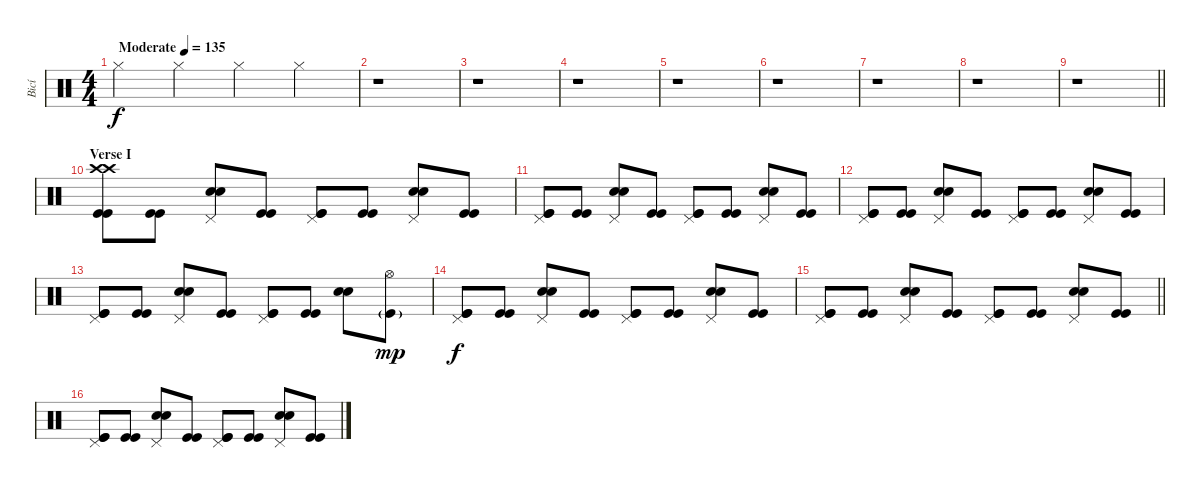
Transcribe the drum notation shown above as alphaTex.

\track ("Bicí" "Bicí") {instrument percussion}
\staff {score}
\articulation defaults
\ts (4 4)
\tempo (135 "Moderate")
\clef neutral
\ks c "Hi-Hat (closed)".4{dy f} "Hi-Hat (closed)".4 "Hi-Hat (closed)".4 "Hi-Hat (closed)".4
|
r.1 |
r.1 |
r.1 |
r.1 |
r.1 |
r.1 |
r.1 |
\barLineRight lightlight
r.1 |
\section ("" "Verse I")
("Crash high (hit)" "Crash high (hit)" "Kick (hit)" "Kick (hit)").8 ("Kick (hit)" "Kick (hit)").8 ("Pedal Hi-Hat (hit)" "Electric Snare (hit)" "Electric Snare (hit)").8 ("Kick (hit)" "Kick (hit)").8 ("Pedal Hi-Hat (hit)" "Kick (hit)" "Kick (hit)").8 ("Kick (hit)" "Kick (hit)").8 ("Pedal Hi-Hat (hit)" "Electric Snare (hit)" "Electric Snare (hit)").8 ("Kick (hit)" "Kick (hit)").8 |
("Pedal Hi-Hat (hit)" "Kick (hit)" "Kick (hit)").8 ("Kick (hit)" "Kick (hit)").8 ("Pedal Hi-Hat (hit)" "Electric Snare (hit)" "Electric Snare (hit)").8 ("Kick (hit)" "Kick (hit)").8 ("Pedal Hi-Hat (hit)" "Kick (hit)" "Kick (hit)").8 ("Kick (hit)" "Kick (hit)").8 ("Pedal Hi-Hat (hit)" "Electric Snare (hit)" "Electric Snare (hit)").8 ("Kick (hit)" "Kick (hit)").8 |
("Pedal Hi-Hat (hit)" "Kick (hit)" "Kick (hit)").8 ("Kick (hit)" "Kick (hit)").8 ("Pedal Hi-Hat (hit)" "Electric Snare (hit)" "Electric Snare (hit)").8 ("Kick (hit)" "Kick (hit)").8 ("Pedal Hi-Hat (hit)" "Kick (hit)" "Kick (hit)").8 ("Kick (hit)" "Kick (hit)").8 ("Pedal Hi-Hat (hit)" "Electric Snare (hit)" "Electric Snare (hit)").8 ("Kick (hit)" "Kick (hit)").8 |
("Pedal Hi-Hat (hit)" "Kick (hit)" "Kick (hit)").8 ("Kick (hit)" "Kick (hit)").8 ("Pedal Hi-Hat (hit)" "Electric Snare (hit)" "Electric Snare (hit)").8 ("Kick (hit)" "Kick (hit)").8 ("Pedal Hi-Hat (hit)" "Kick (hit)" "Kick (hit)").8 ("Kick (hit)" "Kick (hit)").8 ("Electric Snare (hit)" "Electric Snare (hit)").8 ("Hi-Hat (open)" "Kick (hit)"{g}).8{dy mp} |
("Pedal Hi-Hat (hit)" "Kick (hit)" "Kick (hit)").8{dy f} ("Kick (hit)" "Kick (hit)").8 ("Pedal Hi-Hat (hit)" "Electric Snare (hit)" "Electric Snare (hit)").8 ("Kick (hit)" "Kick (hit)").8 ("Pedal Hi-Hat (hit)" "Kick (hit)" "Kick (hit)").8 ("Kick (hit)" "Kick (hit)").8 ("Pedal Hi-Hat (hit)" "Electric Snare (hit)" "Electric Snare (hit)").8 ("Kick (hit)" "Kick (hit)").8 |
\barLineRight lightlight
("Pedal Hi-Hat (hit)" "Kick (hit)" "Kick (hit)").8 ("Kick (hit)" "Kick (hit)").8 ("Pedal Hi-Hat (hit)" "Electric Snare (hit)" "Electric Snare (hit)").8 ("Kick (hit)" "Kick (hit)").8 ("Pedal Hi-Hat (hit)" "Kick (hit)" "Kick (hit)").8 ("Kick (hit)" "Kick (hit)").8 ("Pedal Hi-Hat (hit)" "Electric Snare (hit)" "Electric Snare (hit)").8 ("Kick (hit)" "Kick (hit)").8 |
("Pedal Hi-Hat (hit)" "Kick (hit)" "Kick (hit)").8 ("Kick (hit)" "Kick (hit)").8 ("Pedal Hi-Hat (hit)" "Electric Snare (hit)" "Electric Snare (hit)").8 ("Kick (hit)" "Kick (hit)").8 ("Pedal Hi-Hat (hit)" "Kick (hit)" "Kick (hit)").8 ("Kick (hit)" "Kick (hit)").8 ("Pedal Hi-Hat (hit)" "Electric Snare (hit)" "Electric Snare (hit)").8 ("Kick (hit)" "Kick (hit)").8
